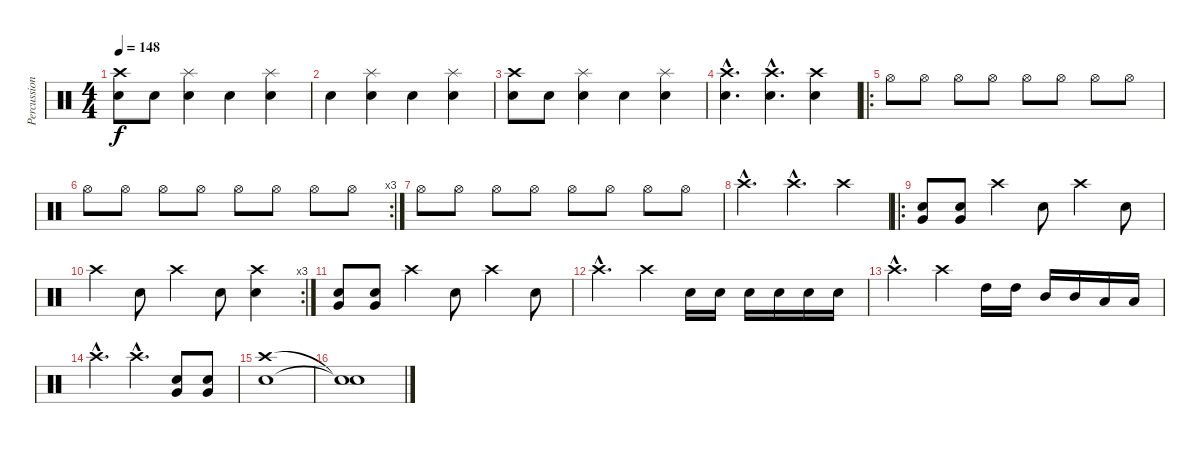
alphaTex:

\track ("Percussions" "Percussion") {instrument percussion}
\staff {score}
\articulation defaults
\ts (4 4)
\tempo 148
\clef neutral
\ks c
("Crash high (hit)" "Snare (hit) 2").8{dy f} "Snare (hit) 2".8 ("Splash (hit)" "Electric Snare (hit)").4 "Snare (hit) 2".4 ("Splash (hit)" "Electric Snare (hit)").4 |
"Snare (hit) 2".4 ("Splash (hit)" "Electric Snare (hit)").4 "Snare (hit) 2".4 ("Splash (hit)" "Electric Snare (hit)").4 |
("Crash high (hit)" "Snare (hit) 2").8 "Snare (hit) 2".8 ("Splash (hit)" "Electric Snare (hit)").4 "Snare (hit) 2".4 ("Splash (hit)" "Electric Snare (hit)").4 |
("Crash high (hit)"{hac} "Snare (hit) 2"{hac}).4{d} ("Crash high (hit)"{hac} "Snare (hit) 2"{hac}).4{d} ("Crash high (hit)" "Snare (hit) 2").4 |
\ro "Hi-Hat (open)".8{volume 10} "Hi-Hat (open)".8 "Hi-Hat (open)".8 "Hi-Hat (open)".8 "Hi-Hat (open)".8 "Hi-Hat (open)".8 "Hi-Hat (open)".8 "Hi-Hat (open)".8
|
\rc 3 "Hi-Hat (open)".8 "Hi-Hat (open)".8 "Hi-Hat (open)".8 "Hi-Hat (open)".8 "Hi-Hat (open)".8 "Hi-Hat (open)".8 "Hi-Hat (open)".8 "Hi-Hat (open)".8
|
"Hi-Hat (open)".8 "Hi-Hat (open)".8 "Hi-Hat (open)".8 "Hi-Hat (open)".8 "Hi-Hat (open)".8 "Hi-Hat (open)".8 "Hi-Hat (open)".8 "Hi-Hat (open)".8 |
"Crash high (hit)"{hac}.4{d} "Crash high (hit)"{hac}.4{d} "Crash high (hit)".4 |
\ro
("Snare (hit) 2" "Very Low Tom (hit)").8 ("Snare (hit) 2" "Very Low Tom (hit)").8 "Crash high (hit)".4 "Snare (hit) 2".8 "Crash high (hit)".4 "Snare (hit) 2".8 |
\rc 3 "Crash high (hit)".4 "Snare (hit) 2".8 "Crash high (hit)".4 "Snare (hit) 2".8
("Crash high (hit)" "Electric Snare (hit)").4 |
("Snare (hit) 2" "Very Low Tom (hit)").8 ("Snare (hit) 2" "Very Low Tom (hit)").8 "Crash high (hit)".4 "Snare (hit) 2".8 "Crash high (hit)".4 "Snare (hit) 2".8 |
"Crash high (hit)"{hac}.4{d} "Crash high (hit)".4 "Electric Snare (hit)".16 "Electric Snare (hit)".16 "Electric Snare (hit)".16 "Electric Snare (hit)".16 "Electric Snare (hit)".16 "Electric Snare (hit)".16 |
"Crash high (hit)"{hac}.4{d} "Crash high (hit)".4 "High Tom (hit)".16 "High Tom (hit)".16 "Mid Tom (hit)".16 "Mid Tom (hit)".16 "Low Tom (hit)".16 "Low Tom (hit)".16 |
"Crash high (hit)"{hac}.4{d} "Crash high (hit)"{hac}.4{d} ("Snare (hit) 2" "Very Low Tom (hit)").8 ("Snare (hit) 2" "Very Low Tom (hit)").8 |
("Crash high (hit)" "Snare (hit) 2").1 |
("Snare (hit)"{t} "Snare (hit)"{t}).1{volume 4}
